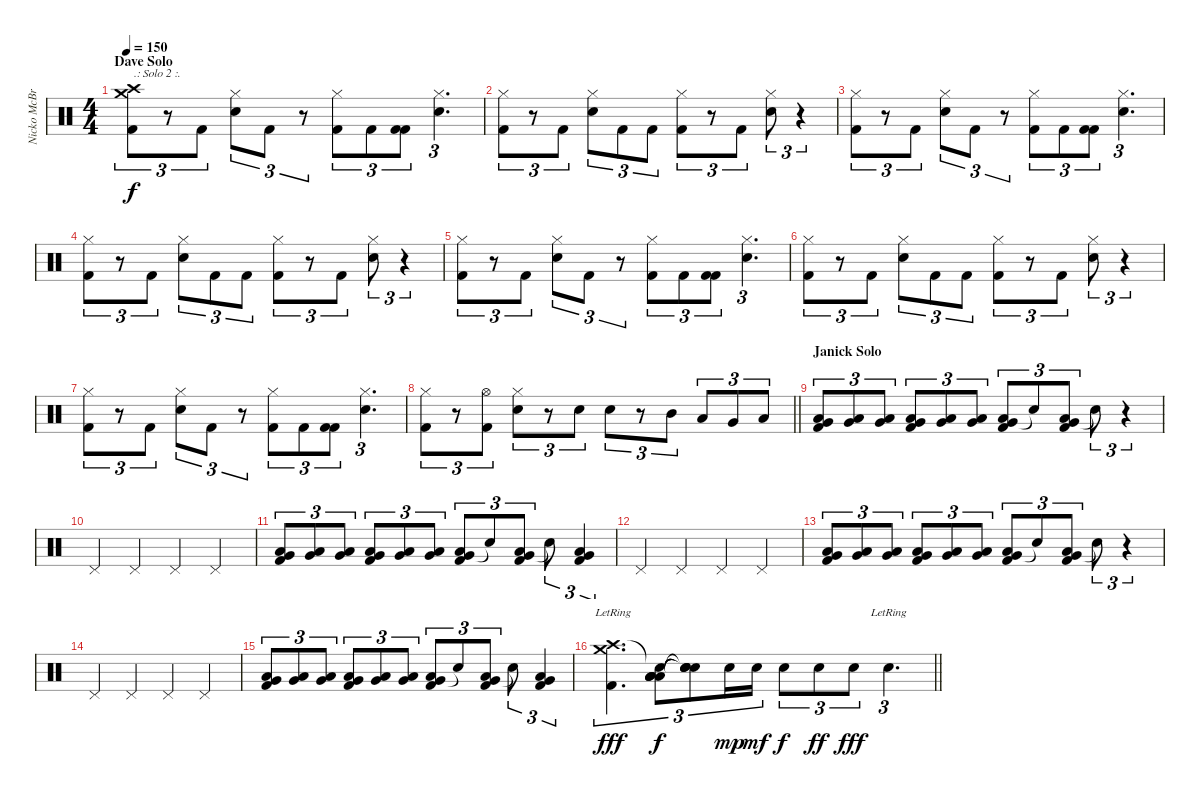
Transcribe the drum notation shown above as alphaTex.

\track ("Nicko McBrain" "Nicko McBr") {instrument percussion}
\staff {score}
\articulation defaults
\ts (4 4)
\section ("" "Dave Solo")
\tempo 150
\clef neutral
\ks c
("Crash medium (hit)" "Crash high (hit)" "Kick (hit) 2").8{tu (3 2) txt ".: Solo 2 :." dy f} r.8{tu (3 2)} "Kick (hit) 2".8{tu (3 2)} ("Hi-Hat (closed)" "Electric Snare (hit)").8{tu (3 2)} "Kick (hit) 2".8{tu (3 2)} r.8{tu (3 2)} ("Hi-Hat (closed)" "Kick (hit) 2").8{tu (3 2)} "Kick (hit) 2".8{tu (3 2)} ("Kick (hit) 2" "Kick (hit) 2").8{tu (3 2)} ("Hi-Hat (closed)" "Electric Snare (hit)").4{d tu (3 2)} |
("Hi-Hat (closed)" "Kick (hit) 2").8{tu (3 2)} r.8{tu (3 2)} "Kick (hit) 2".8{tu (3 2)} ("Hi-Hat (closed)" "Electric Snare (hit)").8{tu (3 2)} "Kick (hit) 2".8{tu (3 2)} "Kick (hit) 2".8{tu (3 2)} ("Kick (hit) 2" "Hi-Hat (closed)").8{tu (3 2)} r.8{tu (3 2)} "Kick (hit) 2".8{tu (3 2)} ("Hi-Hat (closed)" "Electric Snare (hit)").8{tu (3 2)} r.4{tu (3 2)} |
("Hi-Hat (closed)" "Kick (hit) 2").8{tu (3 2)} r.8{tu (3 2)} "Kick (hit) 2".8{tu (3 2)} ("Hi-Hat (closed)" "Electric Snare (hit)").8{tu (3 2)} "Kick (hit) 2".8{tu (3 2)} r.8{tu (3 2)} ("Hi-Hat (closed)" "Kick (hit) 2").8{tu (3 2)} "Kick (hit) 2".8{tu (3 2)} ("Kick (hit) 2" "Kick (hit) 2").8{tu (3 2)} ("Hi-Hat (closed)" "Electric Snare (hit)").4{d tu (3 2)} |
("Hi-Hat (closed)" "Kick (hit) 2").8{tu (3 2)} r.8{tu (3 2)} "Kick (hit) 2".8{tu (3 2)} ("Hi-Hat (closed)" "Electric Snare (hit)").8{tu (3 2)} "Kick (hit) 2".8{tu (3 2)} "Kick (hit) 2".8{tu (3 2)} ("Kick (hit) 2" "Hi-Hat (closed)").8{tu (3 2)} r.8{tu (3 2)} "Kick (hit) 2".8{tu (3 2)} ("Hi-Hat (closed)" "Electric Snare (hit)").8{tu (3 2)} r.4{tu (3 2)} |
("Hi-Hat (closed)" "Kick (hit) 2").8{tu (3 2)} r.8{tu (3 2)} "Kick (hit) 2".8{tu (3 2)} ("Hi-Hat (closed)" "Electric Snare (hit)").8{tu (3 2)} "Kick (hit) 2".8{tu (3 2)} r.8{tu (3 2)} ("Hi-Hat (closed)" "Kick (hit) 2").8{tu (3 2)} "Kick (hit) 2".8{tu (3 2)} ("Kick (hit) 2" "Kick (hit) 2").8{tu (3 2)} ("Hi-Hat (closed)" "Electric Snare (hit)").4{d tu (3 2)} |
("Hi-Hat (closed)" "Kick (hit) 2").8{tu (3 2)} r.8{tu (3 2)} "Kick (hit) 2".8{tu (3 2)} ("Hi-Hat (closed)" "Electric Snare (hit)").8{tu (3 2)} "Kick (hit) 2".8{tu (3 2)} "Kick (hit) 2".8{tu (3 2)} ("Kick (hit) 2" "Hi-Hat (closed)").8{tu (3 2)} r.8{tu (3 2)} "Kick (hit) 2".8{tu (3 2)} ("Hi-Hat (closed)" "Electric Snare (hit)").8{tu (3 2)} r.4{tu (3 2)} |
("Hi-Hat (closed)" "Kick (hit) 2").8{tu (3 2)} r.8{tu (3 2)} "Kick (hit) 2".8{tu (3 2)} ("Hi-Hat (closed)" "Electric Snare (hit)").8{tu (3 2)} "Kick (hit) 2".8{tu (3 2)} r.8{tu (3 2)} ("Hi-Hat (closed)" "Kick (hit) 2").8{tu (3 2)} "Kick (hit) 2".8{tu (3 2)} ("Kick (hit) 2" "Kick (hit) 2").8{tu (3 2)} ("Hi-Hat (closed)" "Electric Snare (hit)").4{d tu (3 2)} |
\barLineRight lightlight
("Hi-Hat (closed)" "Kick (hit) 2").8{tu (3 2)} r.8{tu (3 2)} ("Kick (hit) 2" "Hi-Hat (open)").8{tu (3 2)} ("Hi-Hat (closed)" "Electric Snare (hit)").8{tu (3 2)} r.8{tu (3 2)} "Electric Snare (hit)".8{tu (3 2)} "Electric Snare (hit)".8{tu (3 2)} r.8{tu (3 2)} "Mid Tom (hit)".8{tu (3 2)} "Low Tom (hit)".8{tu (3 2)} "Very Low Tom (hit)".8{tu (3 2)} "Low Floor Tom (hit)".8{tu (3 2)} |
\section ("" "Janick Solo")
("Low Tom (hit)" "Very Low Tom (hit)" "Kick (hit) 2").8{tu (3 2)} ("Low Tom (hit)" "Very Low Tom (hit)").8{tu (3 2)} ("Low Tom (hit)" "Very Low Tom (hit)").8{tu (3 2)} ("Low Tom (hit)" "Very Low Tom (hit)" "Kick (hit) 2").8{tu (3 2)} ("Low Tom (hit)" "Very Low Tom (hit)").8{tu (3 2)} ("Low Tom (hit)" "Very Low Tom (hit)").8{tu (3 2)} ("Very Low Tom (hit)" "Low Floor Tom (hit)" "Kick (hit) 2").8{tu (3 2)} "Snare (hit)"{t}.8{tu (3 2)} ("Very Low Tom (hit)" "Low Floor Tom (hit)" "Kick (hit) 2").8{tu (3 2)} "Snare (hit)"{t}.8{tu (3 2)} r.4{tu (3 2)} |
"Pedal Hi-Hat (hit)".4 "Pedal Hi-Hat (hit)".4 "Pedal Hi-Hat (hit)".4 "Pedal Hi-Hat (hit)".4 |
("Low Tom (hit)" "Very Low Tom (hit)" "Kick (hit) 2").8{tu (3 2)} ("Low Tom (hit)" "Very Low Tom (hit)").8{tu (3 2)} ("Low Tom (hit)" "Very Low Tom (hit)").8{tu (3 2)} ("Low Tom (hit)" "Very Low Tom (hit)" "Kick (hit) 2").8{tu (3 2)} ("Low Tom (hit)" "Very Low Tom (hit)").8{tu (3 2)} ("Low Tom (hit)" "Very Low Tom (hit)").8{tu (3 2)} ("Very Low Tom (hit)" "Low Floor Tom (hit)" "Kick (hit) 2").8{tu (3 2)} "Snare (hit)"{t}.8{tu (3 2)} ("Very Low Tom (hit)" "Low Floor Tom (hit)" "Kick (hit) 2").8{tu (3 2)} "Snare (hit)"{t}.8{tu (3 2)} ("Very Low Tom (hit)" "Low Floor Tom (hit)" "Kick (hit) 2").4{tu (3 2)} |
"Pedal Hi-Hat (hit)".4 "Pedal Hi-Hat (hit)".4 "Pedal Hi-Hat (hit)".4 "Pedal Hi-Hat (hit)".4 |
("Low Tom (hit)" "Very Low Tom (hit)" "Kick (hit) 2").8{tu (3 2)} ("Low Tom (hit)" "Very Low Tom (hit)").8{tu (3 2)} ("Low Tom (hit)" "Very Low Tom (hit)").8{tu (3 2)} ("Low Tom (hit)" "Very Low Tom (hit)" "Kick (hit) 2").8{tu (3 2)} ("Low Tom (hit)" "Very Low Tom (hit)").8{tu (3 2)} ("Low Tom (hit)" "Very Low Tom (hit)").8{tu (3 2)} ("Very Low Tom (hit)" "Low Floor Tom (hit)" "Kick (hit) 2").8{tu (3 2)} "Snare (hit)"{t}.8{tu (3 2)} ("Very Low Tom (hit)" "Low Floor Tom (hit)" "Kick (hit) 2").8{tu (3 2)} "Snare (hit)"{t}.8{tu (3 2)} r.4{tu (3 2)} |
"Pedal Hi-Hat (hit)".4 "Pedal Hi-Hat (hit)".4 "Pedal Hi-Hat (hit)".4 "Pedal Hi-Hat (hit)".4 |
("Low Tom (hit)" "Very Low Tom (hit)" "Kick (hit) 2").8{tu (3 2)} ("Low Tom (hit)" "Very Low Tom (hit)").8{tu (3 2)} ("Low Tom (hit)" "Very Low Tom (hit)").8{tu (3 2)} ("Low Tom (hit)" "Very Low Tom (hit)" "Kick (hit) 2").8{tu (3 2)} ("Low Tom (hit)" "Very Low Tom (hit)").8{tu (3 2)} ("Low Tom (hit)" "Very Low Tom (hit)").8{tu (3 2)} ("Very Low Tom (hit)" "Low Floor Tom (hit)" "Kick (hit) 2").8{tu (3 2)} "Snare (hit)"{t}.8{tu (3 2)} ("Very Low Tom (hit)" "Low Floor Tom (hit)" "Kick (hit) 2").8{tu (3 2)} "Snare (hit)"{t}.8{tu (3 2)} ("Very Low Tom (hit)" "Low Floor Tom (hit)" "Kick (hit) 2").4{tu (3 2)} |
\barLineRight lightlight
("Crash high (hit)"{lr} "Crash medium (hit)" "Kick (hit) 2").4{d tu (3 2) dy fff} ("Snare (hit)"{t} "Low Tom (hit)" "Low Tom (hit)" "Low Tom (hit)" "Low Tom (hit)").8{tu (3 2) dy f} ("Snare (hit)"{t} "Snare (hit)"{t} "Snare (hit)"{t} "Snare (hit)"{t}).8{tu (3 2)} "Electric Snare (hit)".16{tu (3 2) dy mp} "Electric Snare (hit)".16{tu (3 2) dy mf} "Electric Snare (hit)".8{tu (3 2) dy f} "Electric Snare (hit)".8{tu (3 2) dy ff} "Electric Snare (hit)".8{tu (3 2) dy fff} "Electric Snare (hit)"{lr}.4{d tu (3 2)}
